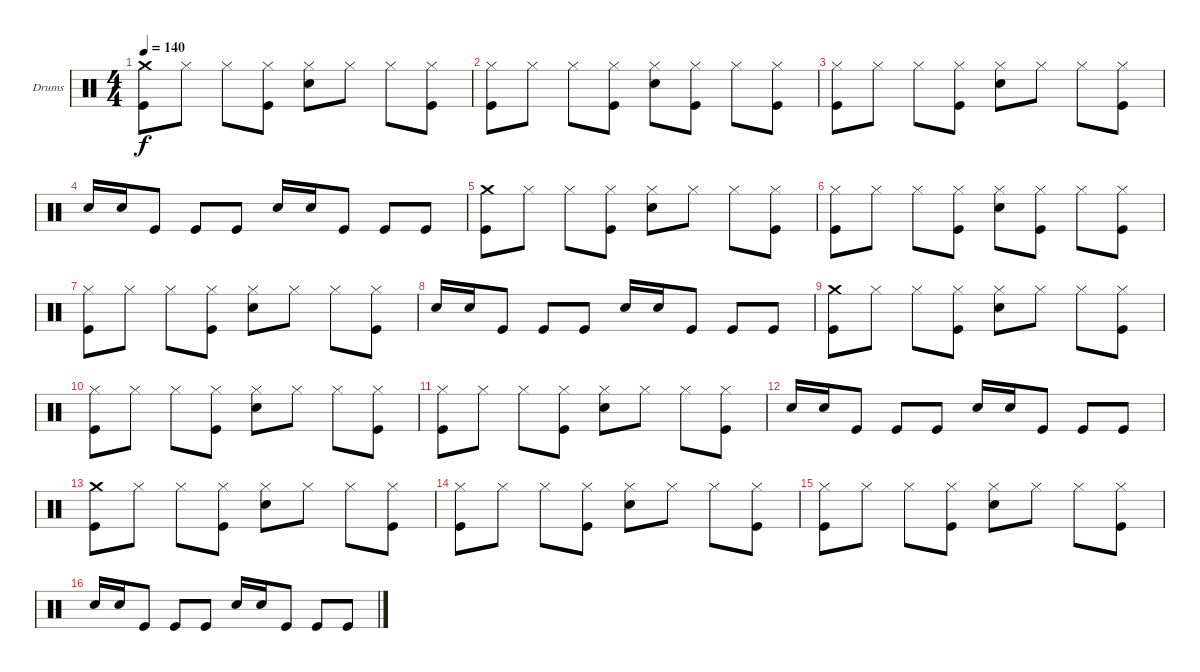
\bracketExtendMode groupsimilarinstruments
\firstSystemTrackNameOrientation horizontal
\otherSystemsTrackNameOrientation horizontal
\track ("Drumkit" "Drums") {instrument percussion}
\staff {score}
\articulation defaults
\ts (4 4)
\tempo 140
\clef neutral
\ks c
("Kick (hit)" "Crash medium (hit)").8{dy f} "Hi-Hat (closed)".8 "Hi-Hat (closed)".8 ("Kick (hit)" "Hi-Hat (closed)").8 ("Snare (hit) 2" "Hi-Hat (closed)").8 "Hi-Hat (closed)".8 "Hi-Hat (closed)".8 ("Kick (hit)" "Hi-Hat (closed)").8 |
("Kick (hit)" "Hi-Hat (closed)").8 "Hi-Hat (closed)".8 "Hi-Hat (closed)".8 ("Kick (hit)" "Hi-Hat (closed)").8 ("Snare (hit) 2" "Hi-Hat (closed)").8 ("Kick (hit)" "Hi-Hat (closed)").8 "Hi-Hat (closed)".8 ("Kick (hit)" "Hi-Hat (closed)").8 |
("Kick (hit)" "Hi-Hat (closed)").8 "Hi-Hat (closed)".8 "Hi-Hat (closed)".8 ("Kick (hit)" "Hi-Hat (closed)").8 ("Snare (hit) 2" "Hi-Hat (closed)").8 "Hi-Hat (closed)".8 "Hi-Hat (closed)".8 ("Kick (hit)" "Hi-Hat (closed)").8 |
"Snare (hit) 2".16 "Snare (hit) 2".16 "Kick (hit)".8 "Kick (hit)".8 "Kick (hit)".8 "Snare (hit) 2".16 "Snare (hit) 2".16 "Kick (hit)".8 "Kick (hit)".8 "Kick (hit)".8 |
("Kick (hit)" "Crash medium (hit)").8 "Hi-Hat (closed)".8 "Hi-Hat (closed)".8 ("Kick (hit)" "Hi-Hat (closed)").8 ("Snare (hit) 2" "Hi-Hat (closed)").8 "Hi-Hat (closed)".8 "Hi-Hat (closed)".8 ("Kick (hit)" "Hi-Hat (closed)").8 |
("Kick (hit)" "Hi-Hat (closed)").8 "Hi-Hat (closed)".8 "Hi-Hat (closed)".8 ("Kick (hit)" "Hi-Hat (closed)").8 ("Snare (hit) 2" "Hi-Hat (closed)").8 ("Kick (hit)" "Hi-Hat (closed)").8 "Hi-Hat (closed)".8 ("Kick (hit)" "Hi-Hat (closed)").8 |
("Kick (hit)" "Hi-Hat (closed)").8 "Hi-Hat (closed)".8 "Hi-Hat (closed)".8 ("Kick (hit)" "Hi-Hat (closed)").8 ("Snare (hit) 2" "Hi-Hat (closed)").8 "Hi-Hat (closed)".8 "Hi-Hat (closed)".8 ("Kick (hit)" "Hi-Hat (closed)").8 |
"Snare (hit) 2".16 "Snare (hit) 2".16 "Kick (hit)".8 "Kick (hit)".8 "Kick (hit)".8 "Snare (hit) 2".16 "Snare (hit) 2".16 "Kick (hit)".8 "Kick (hit)".8 "Kick (hit)".8 |
("Kick (hit)" "Crash medium (hit)").8 "Hi-Hat (closed)".8 "Hi-Hat (closed)".8 ("Kick (hit)" "Hi-Hat (closed)").8 ("Snare (hit) 2" "Hi-Hat (closed)").8 "Hi-Hat (closed)".8 "Hi-Hat (closed)".8 ("Kick (hit)" "Hi-Hat (closed)").8 |
("Kick (hit)" "Hi-Hat (closed)").8 "Hi-Hat (closed)".8 "Hi-Hat (closed)".8 ("Kick (hit)" "Hi-Hat (closed)").8 ("Snare (hit) 2" "Hi-Hat (closed)").8 "Hi-Hat (closed)".8 "Hi-Hat (closed)".8 ("Kick (hit)" "Hi-Hat (closed)").8 |
("Kick (hit)" "Hi-Hat (closed)").8 "Hi-Hat (closed)".8 "Hi-Hat (closed)".8 ("Kick (hit)" "Hi-Hat (closed)").8 ("Snare (hit) 2" "Hi-Hat (closed)").8 "Hi-Hat (closed)".8 "Hi-Hat (closed)".8 ("Kick (hit)" "Hi-Hat (closed)").8 |
"Snare (hit) 2".16 "Snare (hit) 2".16 "Kick (hit)".8 "Kick (hit)".8 "Kick (hit)".8 "Snare (hit) 2".16 "Snare (hit) 2".16 "Kick (hit)".8 "Kick (hit)".8 "Kick (hit)".8 |
("Kick (hit)" "Crash medium (hit)").8 "Hi-Hat (closed)".8 "Hi-Hat (closed)".8 ("Kick (hit)" "Hi-Hat (closed)").8 ("Snare (hit) 2" "Hi-Hat (closed)").8 "Hi-Hat (closed)".8 "Hi-Hat (closed)".8 ("Kick (hit)" "Hi-Hat (closed)").8 |
("Kick (hit)" "Hi-Hat (closed)").8 "Hi-Hat (closed)".8 "Hi-Hat (closed)".8 ("Kick (hit)" "Hi-Hat (closed)").8 ("Snare (hit) 2" "Hi-Hat (closed)").8 "Hi-Hat (closed)".8 "Hi-Hat (closed)".8 ("Kick (hit)" "Hi-Hat (closed)").8 |
("Kick (hit)" "Hi-Hat (closed)").8 "Hi-Hat (closed)".8 "Hi-Hat (closed)".8 ("Kick (hit)" "Hi-Hat (closed)").8 ("Snare (hit) 2" "Hi-Hat (closed)").8 "Hi-Hat (closed)".8 "Hi-Hat (closed)".8 ("Kick (hit)" "Hi-Hat (closed)").8 |
"Snare (hit) 2".16 "Snare (hit) 2".16 "Kick (hit)".8 "Kick (hit)".8 "Kick (hit)".8 "Snare (hit) 2".16 "Snare (hit) 2".16 "Kick (hit)".8 "Kick (hit)".8 "Kick (hit)".8
